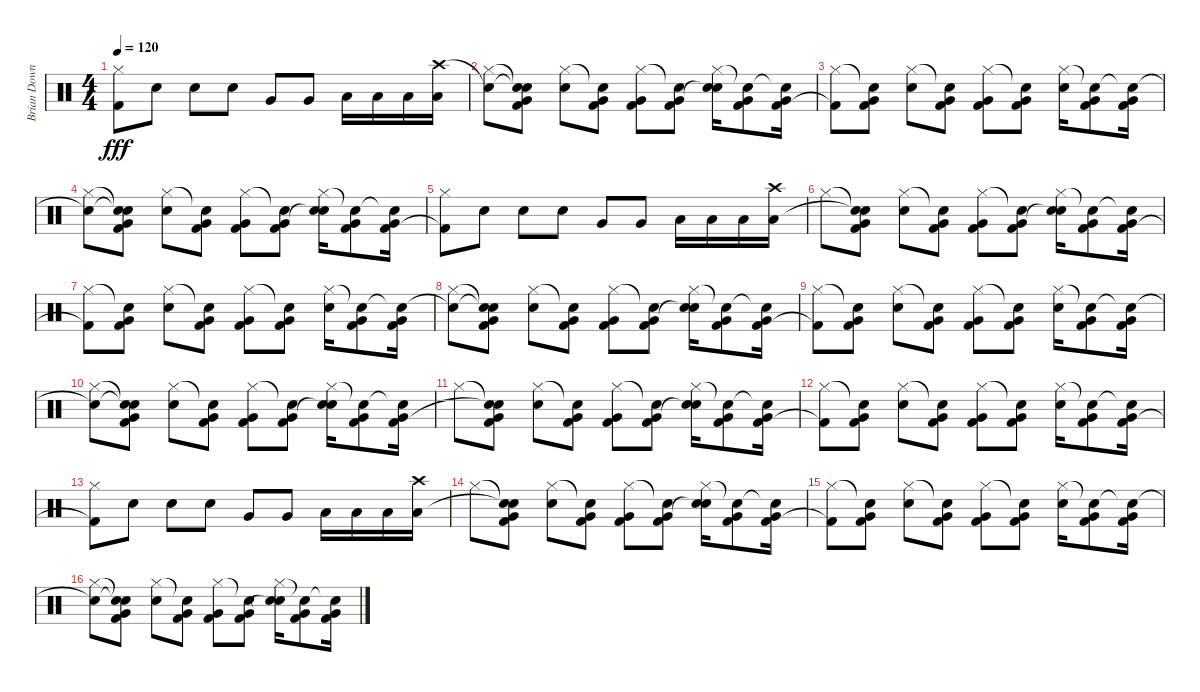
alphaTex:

\track ("Brian Downey" "Brian Down") {instrument percussion}
\staff {score}
\articulation defaults
\ts (4 4)
\tempo 120
\clef neutral
\ks c
("Hi-Hat (closed)" "Kick (hit) 2"{t}).8{dy fff} "Electric Snare (hit)".8 "Electric Snare (hit)".8 "Electric Snare (hit)".8 "Very Low Tom (hit)".8 "Very Low Tom (hit)".8 "Low Floor Tom (hit)".16 "Low Floor Tom (hit)".16 "Low Floor Tom (hit)".16 ("Crash high (hit)" "Low Floor Tom (hit)").16 |
("Snare (hit)"{t} "Hi-Hat (closed)").8 ("Snare (hit)"{t} "Snare (hit)"{t} "Kick (hit) 2" "Very Low Tom (hit)").8 ("Hi-Hat (closed)" "Electric Snare (hit)").8 ("Snare (hit)"{t} "Kick (hit) 2" "Very Low Tom (hit)").8 ("Hi-Hat (closed)" "Kick (hit) 2" "Very Low Tom (hit)").8 ("Snare (hit)"{t} "Kick (hit) 2" "Very Low Tom (hit)").8 ("Hi-Hat (closed)" "Electric Snare (hit)" "Snare (hit)"{t}).16 ("Snare (hit)"{t} "Kick (hit) 2" "Very Low Tom (hit)").8 ("Snare (hit)"{t} "Kick (hit) 2" "Very Low Tom (hit)").16 |
("Hi-Hat (closed)" "Kick (hit) 2"{t}).8 ("Snare (hit)"{t} "Kick (hit) 2" "Very Low Tom (hit)").8 ("Hi-Hat (closed)" "Electric Snare (hit)").8 ("Snare (hit)"{t} "Kick (hit) 2" "Very Low Tom (hit)").8 ("Hi-Hat (closed)" "Kick (hit) 2" "Very Low Tom (hit)").8 ("Snare (hit)"{t} "Kick (hit) 2" "Very Low Tom (hit)").8 ("Hi-Hat (closed)" "Electric Snare (hit)").16 ("Snare (hit)"{t} "Kick (hit) 2" "Very Low Tom (hit)").8 ("Snare (hit)"{t} "Kick (hit) 2" "Very Low Tom (hit)").16 |
("Snare (hit)"{t} "Hi-Hat (closed)").8 ("Snare (hit)"{t} "Snare (hit)"{t} "Kick (hit) 2" "Very Low Tom (hit)").8 ("Hi-Hat (closed)" "Electric Snare (hit)").8 ("Snare (hit)"{t} "Kick (hit) 2" "Very Low Tom (hit)").8 ("Hi-Hat (closed)" "Kick (hit) 2" "Very Low Tom (hit)").8 ("Snare (hit)"{t} "Kick (hit) 2" "Very Low Tom (hit)").8 ("Hi-Hat (closed)" "Electric Snare (hit)" "Snare (hit)"{t}).16 ("Snare (hit)"{t} "Kick (hit) 2" "Very Low Tom (hit)").8 ("Snare (hit)"{t} "Kick (hit) 2" "Very Low Tom (hit)").16 |
("Hi-Hat (closed)" "Kick (hit) 2"{t}).8 "Electric Snare (hit)".8 "Electric Snare (hit)".8 "Electric Snare (hit)".8 "Very Low Tom (hit)".8 "Very Low Tom (hit)".8 "Low Floor Tom (hit)".16 "Low Floor Tom (hit)".16 "Low Floor Tom (hit)".16 ("Crash high (hit)" "Low Floor Tom (hit)").16 |
"Hi-Hat (closed)".8 ("Snare (hit)"{t} "Snare (hit)"{t} "Kick (hit) 2" "Very Low Tom (hit)").8 ("Hi-Hat (closed)" "Electric Snare (hit)").8 ("Snare (hit)"{t} "Kick (hit) 2" "Very Low Tom (hit)").8 ("Hi-Hat (closed)" "Kick (hit) 2" "Very Low Tom (hit)").8 ("Snare (hit)"{t} "Kick (hit) 2" "Very Low Tom (hit)").8 ("Hi-Hat (closed)" "Electric Snare (hit)" "Snare (hit)"{t}).16 ("Snare (hit)"{t} "Kick (hit) 2" "Very Low Tom (hit)").8 ("Snare (hit)"{t} "Kick (hit) 2" "Very Low Tom (hit)").16 |
("Hi-Hat (closed)" "Kick (hit) 2"{t}).8 ("Snare (hit)"{t} "Kick (hit) 2" "Very Low Tom (hit)").8 ("Hi-Hat (closed)" "Electric Snare (hit)").8 ("Snare (hit)"{t} "Kick (hit) 2" "Very Low Tom (hit)").8 ("Hi-Hat (closed)" "Kick (hit) 2" "Very Low Tom (hit)").8 ("Snare (hit)"{t} "Kick (hit) 2" "Very Low Tom (hit)").8 ("Hi-Hat (closed)" "Electric Snare (hit)").16 ("Snare (hit)"{t} "Kick (hit) 2" "Very Low Tom (hit)").8 ("Snare (hit)"{t} "Kick (hit) 2" "Very Low Tom (hit)").16 |
("Snare (hit)"{t} "Hi-Hat (closed)").8 ("Snare (hit)"{t} "Snare (hit)"{t} "Kick (hit) 2" "Very Low Tom (hit)").8 ("Hi-Hat (closed)" "Electric Snare (hit)").8 ("Snare (hit)"{t} "Kick (hit) 2" "Very Low Tom (hit)").8 ("Hi-Hat (closed)" "Kick (hit) 2" "Very Low Tom (hit)").8 ("Snare (hit)"{t} "Kick (hit) 2" "Very Low Tom (hit)").8 ("Hi-Hat (closed)" "Electric Snare (hit)" "Snare (hit)"{t}).16 ("Snare (hit)"{t} "Kick (hit) 2" "Very Low Tom (hit)").8 ("Snare (hit)"{t} "Kick (hit) 2" "Very Low Tom (hit)").16 |
("Hi-Hat (closed)" "Kick (hit) 2"{t}).8 ("Snare (hit)"{t} "Kick (hit) 2" "Very Low Tom (hit)").8 ("Hi-Hat (closed)" "Electric Snare (hit)").8 ("Snare (hit)"{t} "Kick (hit) 2" "Very Low Tom (hit)").8 ("Hi-Hat (closed)" "Kick (hit) 2" "Very Low Tom (hit)").8 ("Snare (hit)"{t} "Kick (hit) 2" "Very Low Tom (hit)").8 ("Hi-Hat (closed)" "Electric Snare (hit)").16 ("Snare (hit)"{t} "Kick (hit) 2" "Very Low Tom (hit)").8 ("Snare (hit)"{t} "Kick (hit) 2" "Very Low Tom (hit)").16 |
("Snare (hit)"{t} "Hi-Hat (closed)").8 ("Snare (hit)"{t} "Snare (hit)"{t} "Kick (hit) 2" "Very Low Tom (hit)").8 ("Hi-Hat (closed)" "Electric Snare (hit)").8 ("Snare (hit)"{t} "Kick (hit) 2" "Very Low Tom (hit)").8 ("Hi-Hat (closed)" "Kick (hit) 2" "Very Low Tom (hit)").8 ("Snare (hit)"{t} "Kick (hit) 2" "Very Low Tom (hit)").8 ("Hi-Hat (closed)" "Electric Snare (hit)" "Snare (hit)"{t}).16 ("Snare (hit)"{t} "Kick (hit) 2" "Very Low Tom (hit)").8 ("Snare (hit)"{t} "Kick (hit) 2" "Very Low Tom (hit)").16 |
"Hi-Hat (closed)".8 ("Snare (hit)"{t} "Snare (hit)"{t} "Kick (hit) 2" "Very Low Tom (hit)").8 ("Hi-Hat (closed)" "Electric Snare (hit)").8 ("Snare (hit)"{t} "Kick (hit) 2" "Very Low Tom (hit)").8 ("Hi-Hat (closed)" "Kick (hit) 2" "Very Low Tom (hit)").8 ("Snare (hit)"{t} "Kick (hit) 2" "Very Low Tom (hit)").8 ("Hi-Hat (closed)" "Electric Snare (hit)" "Snare (hit)"{t}).16 ("Snare (hit)"{t} "Kick (hit) 2" "Very Low Tom (hit)").8 ("Snare (hit)"{t} "Kick (hit) 2" "Very Low Tom (hit)").16 |
("Hi-Hat (closed)" "Kick (hit) 2"{t}).8 ("Snare (hit)"{t} "Kick (hit) 2" "Very Low Tom (hit)").8 ("Hi-Hat (closed)" "Electric Snare (hit)").8 ("Snare (hit)"{t} "Kick (hit) 2" "Very Low Tom (hit)").8 ("Hi-Hat (closed)" "Kick (hit) 2" "Very Low Tom (hit)").8 ("Snare (hit)"{t} "Kick (hit) 2" "Very Low Tom (hit)").8 ("Hi-Hat (closed)" "Electric Snare (hit)").16 ("Snare (hit)"{t} "Kick (hit) 2" "Very Low Tom (hit)").8 ("Snare (hit)"{t} "Kick (hit) 2" "Very Low Tom (hit)").16 |
("Hi-Hat (closed)" "Kick (hit) 2"{t}).8 "Electric Snare (hit)".8 "Electric Snare (hit)".8 "Electric Snare (hit)".8 "Very Low Tom (hit)".8 "Very Low Tom (hit)".8 "Low Floor Tom (hit)".16 "Low Floor Tom (hit)".16 "Low Floor Tom (hit)".16 ("Crash high (hit)" "Low Floor Tom (hit)").16 |
"Hi-Hat (closed)".8 ("Snare (hit)"{t} "Snare (hit)"{t} "Kick (hit) 2" "Very Low Tom (hit)").8 ("Hi-Hat (closed)" "Electric Snare (hit)").8 ("Snare (hit)"{t} "Kick (hit) 2" "Very Low Tom (hit)").8 ("Hi-Hat (closed)" "Kick (hit) 2" "Very Low Tom (hit)").8 ("Snare (hit)"{t} "Kick (hit) 2" "Very Low Tom (hit)").8 ("Hi-Hat (closed)" "Electric Snare (hit)" "Snare (hit)"{t}).16 ("Snare (hit)"{t} "Kick (hit) 2" "Very Low Tom (hit)").8 ("Snare (hit)"{t} "Kick (hit) 2" "Very Low Tom (hit)").16 |
("Hi-Hat (closed)" "Kick (hit) 2"{t}).8 ("Snare (hit)"{t} "Kick (hit) 2" "Very Low Tom (hit)").8 ("Hi-Hat (closed)" "Electric Snare (hit)").8 ("Snare (hit)"{t} "Kick (hit) 2" "Very Low Tom (hit)").8 ("Hi-Hat (closed)" "Kick (hit) 2" "Very Low Tom (hit)").8 ("Snare (hit)"{t} "Kick (hit) 2" "Very Low Tom (hit)").8 ("Hi-Hat (closed)" "Electric Snare (hit)").16 ("Snare (hit)"{t} "Kick (hit) 2" "Very Low Tom (hit)").8 ("Snare (hit)"{t} "Kick (hit) 2" "Very Low Tom (hit)").16 |
("Snare (hit)"{t} "Hi-Hat (closed)").8 ("Snare (hit)"{t} "Snare (hit)"{t} "Kick (hit) 2" "Very Low Tom (hit)").8 ("Hi-Hat (closed)" "Electric Snare (hit)").8 ("Snare (hit)"{t} "Kick (hit) 2" "Very Low Tom (hit)").8 ("Hi-Hat (closed)" "Kick (hit) 2" "Very Low Tom (hit)").8 ("Snare (hit)"{t} "Kick (hit) 2" "Very Low Tom (hit)").8 ("Hi-Hat (closed)" "Electric Snare (hit)" "Snare (hit)"{t}).16 ("Snare (hit)"{t} "Kick (hit) 2" "Very Low Tom (hit)").8 ("Snare (hit)"{t} "Kick (hit) 2" "Very Low Tom (hit)").16
